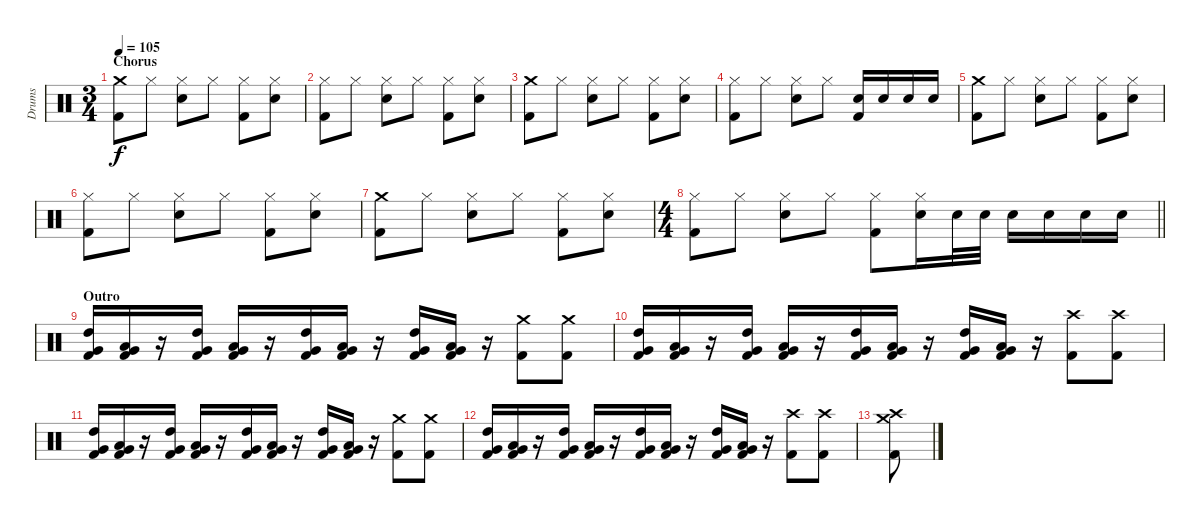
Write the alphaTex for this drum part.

\track ("Drums" "Drums") {instrument percussion}
\staff {score}
\articulation defaults
\ts (3 4)
\section ("" "Chorus")
\tempo 105
\clef neutral
\ks c
("Kick (hit) 2" "Crash medium (hit)").8{dy f} "Hi-Hat (closed)".8 ("Snare (hit) 2" "Hi-Hat (closed)").8 "Hi-Hat (closed)".8 ("Kick (hit) 2" "Hi-Hat (closed)").8 ("Snare (hit) 2" "Hi-Hat (closed)").8 |
("Kick (hit) 2" "Hi-Hat (closed)").8 "Hi-Hat (closed)".8 ("Snare (hit) 2" "Hi-Hat (closed)").8 "Hi-Hat (closed)".8 ("Kick (hit) 2" "Hi-Hat (closed)").8 ("Snare (hit) 2" "Hi-Hat (closed)").8 |
("Kick (hit) 2" "Crash medium (hit)").8 "Hi-Hat (closed)".8 ("Snare (hit) 2" "Hi-Hat (closed)").8 "Hi-Hat (closed)".8 ("Kick (hit) 2" "Hi-Hat (closed)").8 ("Snare (hit) 2" "Hi-Hat (closed)").8 |
("Kick (hit) 2" "Hi-Hat (closed)").8 "Hi-Hat (closed)".8 ("Snare (hit) 2" "Hi-Hat (closed)").8 "Hi-Hat (closed)".8 ("Kick (hit) 2" "Snare (hit) 2").16 "Snare (hit) 2".16 "Snare (hit) 2".16 "Snare (hit) 2".16 |
("Kick (hit) 2" "Crash medium (hit)").8 "Hi-Hat (closed)".8 ("Snare (hit) 2" "Hi-Hat (closed)").8 "Hi-Hat (closed)".8 ("Kick (hit) 2" "Hi-Hat (closed)").8 ("Snare (hit) 2" "Hi-Hat (closed)").8 |
("Kick (hit) 2" "Hi-Hat (closed)").8 "Hi-Hat (closed)".8 ("Snare (hit) 2" "Hi-Hat (closed)").8 "Hi-Hat (closed)".8 ("Kick (hit) 2" "Hi-Hat (closed)").8 ("Snare (hit) 2" "Hi-Hat (closed)").8 |
("Kick (hit) 2" "Crash medium (hit)").8 "Hi-Hat (closed)".8 ("Snare (hit) 2" "Hi-Hat (closed)").8 "Hi-Hat (closed)".8 ("Kick (hit) 2" "Hi-Hat (closed)").8 ("Snare (hit) 2" "Hi-Hat (closed)").8 |
\ts (4 4)
\barLineRight lightlight
("Kick (hit) 2" "Hi-Hat (closed)").8 "Hi-Hat (closed)".8 ("Snare (hit) 2" "Hi-Hat (closed)").8 "Hi-Hat (closed)".8 ("Kick (hit) 2" "Hi-Hat (closed)").8 ("Snare (hit) 2" "Hi-Hat (closed)").16 "Snare (hit) 2".32 "Snare (hit) 2".32 "Snare (hit) 2".16 "Snare (hit) 2".16 "Snare (hit) 2".16 "Snare (hit) 2".16 |
\section ("" "Outro")
("Kick (hit) 2" "Very Low Tom (hit)" "High Tom (hit)").16 ("Kick (hit) 2" "Very Low Tom (hit)" "Low Tom (hit)").16 r.16 ("Kick (hit) 2" "Very Low Tom (hit)" "High Tom (hit)").16 ("Kick (hit) 2" "Very Low Tom (hit)" "Low Tom (hit)").16 r.16 ("Kick (hit) 2" "Very Low Tom (hit)" "High Tom (hit)").16 ("Kick (hit) 2" "Very Low Tom (hit)" "Low Tom (hit)").16 r.16 ("Kick (hit) 2" "Very Low Tom (hit)" "High Tom (hit)").16 ("Kick (hit) 2" "Very Low Tom (hit)" "Low Tom (hit)").16 r.16 ("Kick (hit) 2" "Crash medium (hit)").8 ("Kick (hit) 2" "Crash medium (hit)").8 |
("Kick (hit) 2" "Very Low Tom (hit)" "High Tom (hit)").16 ("Kick (hit) 2" "Very Low Tom (hit)" "Low Tom (hit)").16 r.16 ("Kick (hit) 2" "Very Low Tom (hit)" "High Tom (hit)").16 ("Kick (hit) 2" "Very Low Tom (hit)" "Low Tom (hit)").16 r.16 ("Kick (hit) 2" "Very Low Tom (hit)" "High Tom (hit)").16 ("Kick (hit) 2" "Very Low Tom (hit)" "Low Tom (hit)").16 r.16 ("Kick (hit) 2" "Very Low Tom (hit)" "High Tom (hit)").16 ("Kick (hit) 2" "Very Low Tom (hit)" "Low Tom (hit)").16 r.16 ("Kick (hit) 2" "Crash high (hit)").8 ("Kick (hit) 2" "Crash high (hit)").8 |
("Kick (hit) 2" "Very Low Tom (hit)" "High Tom (hit)").16 ("Kick (hit) 2" "Very Low Tom (hit)" "Low Tom (hit)").16 r.16 ("Kick (hit) 2" "Very Low Tom (hit)" "High Tom (hit)").16 ("Kick (hit) 2" "Very Low Tom (hit)" "Low Tom (hit)").16 r.16 ("Kick (hit) 2" "Very Low Tom (hit)" "High Tom (hit)").16 ("Kick (hit) 2" "Very Low Tom (hit)" "Low Tom (hit)").16 r.16 ("Kick (hit) 2" "Very Low Tom (hit)" "High Tom (hit)").16 ("Kick (hit) 2" "Very Low Tom (hit)" "Low Tom (hit)").16 r.16 ("Kick (hit) 2" "Crash medium (hit)").8 ("Kick (hit) 2" "Crash medium (hit)").8 |
("Kick (hit) 2" "Very Low Tom (hit)" "High Tom (hit)").16 ("Kick (hit) 2" "Very Low Tom (hit)" "Low Tom (hit)").16 r.16 ("Kick (hit) 2" "Very Low Tom (hit)" "High Tom (hit)").16 ("Kick (hit) 2" "Very Low Tom (hit)" "Low Tom (hit)").16 r.16 ("Kick (hit) 2" "Very Low Tom (hit)" "High Tom (hit)").16 ("Kick (hit) 2" "Very Low Tom (hit)" "Low Tom (hit)").16 r.16 ("Kick (hit) 2" "Very Low Tom (hit)" "High Tom (hit)").16 ("Kick (hit) 2" "Very Low Tom (hit)" "Low Tom (hit)").16 r.16 ("Kick (hit) 2" "Crash high (hit)").8 ("Kick (hit) 2" "Crash high (hit)").8 |
("Kick (hit) 2" "Crash high (hit)" "Crash medium (hit)").8
